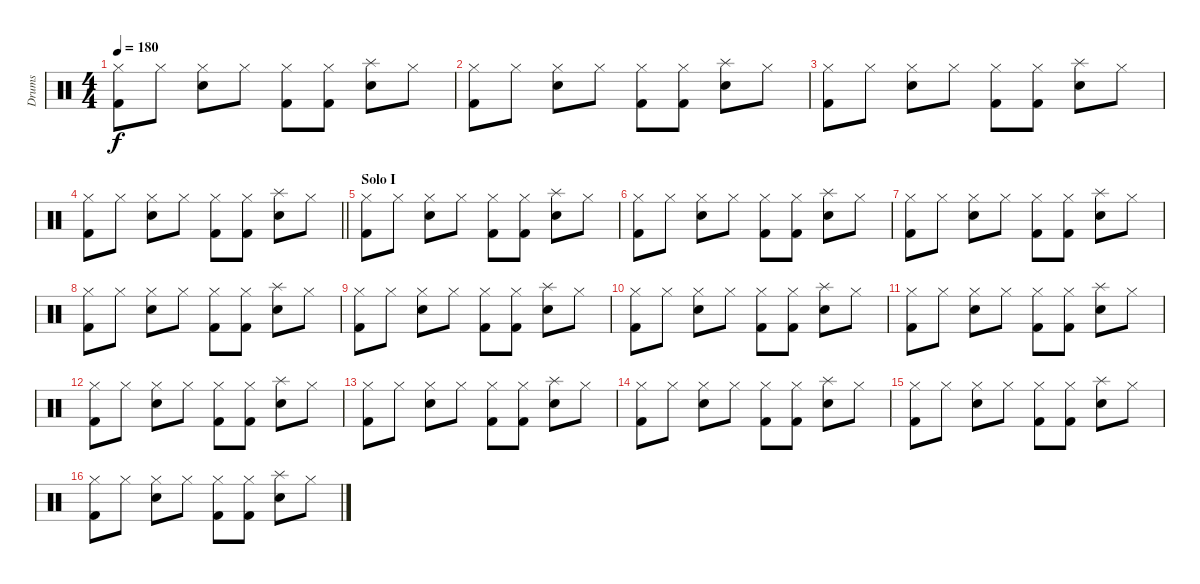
\track ("Drums" "Drums") {instrument percussion}
\staff {score}
\articulation defaults
\ts (4 4)
\tempo 180
\clef neutral
\ks c
("Hi-Hat (closed)" "Kick (hit) 2").8{dy f} "Hi-Hat (closed)".8 ("Hi-Hat (closed)" "Snare (hit) 2").8 "Hi-Hat (closed)".8 ("Hi-Hat (closed)" "Kick (hit) 2").8 ("Hi-Hat (closed)" "Kick (hit) 2").8 ("Splash (hit)" "Snare (hit) 2").8 "Hi-Hat (closed)".8 |
("Hi-Hat (closed)" "Kick (hit) 2").8 "Hi-Hat (closed)".8 ("Hi-Hat (closed)" "Snare (hit) 2").8 "Hi-Hat (closed)".8 ("Hi-Hat (closed)" "Kick (hit) 2").8 ("Hi-Hat (closed)" "Kick (hit) 2").8 ("Splash (hit)" "Snare (hit) 2").8 "Hi-Hat (closed)".8 |
("Hi-Hat (closed)" "Kick (hit) 2").8 "Hi-Hat (closed)".8 ("Hi-Hat (closed)" "Snare (hit) 2").8 "Hi-Hat (closed)".8 ("Hi-Hat (closed)" "Kick (hit) 2").8 ("Hi-Hat (closed)" "Kick (hit) 2").8 ("Splash (hit)" "Snare (hit) 2").8 "Hi-Hat (closed)".8 |
\barLineRight lightlight
("Hi-Hat (closed)" "Kick (hit) 2").8 "Hi-Hat (closed)".8 ("Hi-Hat (closed)" "Snare (hit) 2").8 "Hi-Hat (closed)".8 ("Hi-Hat (closed)" "Kick (hit) 2").8 ("Hi-Hat (closed)" "Kick (hit) 2").8 ("Splash (hit)" "Snare (hit) 2").8 "Hi-Hat (closed)".8 |
\section ("" "Solo I")
("Hi-Hat (closed)" "Kick (hit) 2").8 "Hi-Hat (closed)".8 ("Hi-Hat (closed)" "Snare (hit) 2").8 "Hi-Hat (closed)".8 ("Hi-Hat (closed)" "Kick (hit) 2").8 ("Hi-Hat (closed)" "Kick (hit) 2").8 ("Splash (hit)" "Snare (hit) 2").8 "Hi-Hat (closed)".8 |
("Hi-Hat (closed)" "Kick (hit) 2").8 "Hi-Hat (closed)".8 ("Hi-Hat (closed)" "Snare (hit) 2").8 "Hi-Hat (closed)".8 ("Hi-Hat (closed)" "Kick (hit) 2").8 ("Hi-Hat (closed)" "Kick (hit) 2").8 ("Splash (hit)" "Snare (hit) 2").8 "Hi-Hat (closed)".8 |
("Hi-Hat (closed)" "Kick (hit) 2").8 "Hi-Hat (closed)".8 ("Hi-Hat (closed)" "Snare (hit) 2").8 "Hi-Hat (closed)".8 ("Hi-Hat (closed)" "Kick (hit) 2").8 ("Hi-Hat (closed)" "Kick (hit) 2").8 ("Splash (hit)" "Snare (hit) 2").8 "Hi-Hat (closed)".8 |
("Hi-Hat (closed)" "Kick (hit) 2").8 "Hi-Hat (closed)".8 ("Hi-Hat (closed)" "Snare (hit) 2").8 "Hi-Hat (closed)".8 ("Hi-Hat (closed)" "Kick (hit) 2").8 ("Hi-Hat (closed)" "Kick (hit) 2").8 ("Splash (hit)" "Snare (hit) 2").8 "Hi-Hat (closed)".8 |
("Hi-Hat (closed)" "Kick (hit) 2").8 "Hi-Hat (closed)".8 ("Hi-Hat (closed)" "Snare (hit) 2").8 "Hi-Hat (closed)".8 ("Hi-Hat (closed)" "Kick (hit) 2").8 ("Hi-Hat (closed)" "Kick (hit) 2").8 ("Splash (hit)" "Snare (hit) 2").8 "Hi-Hat (closed)".8 |
("Hi-Hat (closed)" "Kick (hit) 2").8 "Hi-Hat (closed)".8 ("Hi-Hat (closed)" "Snare (hit) 2").8 "Hi-Hat (closed)".8 ("Hi-Hat (closed)" "Kick (hit) 2").8 ("Hi-Hat (closed)" "Kick (hit) 2").8 ("Splash (hit)" "Snare (hit) 2").8 "Hi-Hat (closed)".8 |
("Hi-Hat (closed)" "Kick (hit) 2").8 "Hi-Hat (closed)".8 ("Hi-Hat (closed)" "Snare (hit) 2").8 "Hi-Hat (closed)".8 ("Hi-Hat (closed)" "Kick (hit) 2").8 ("Hi-Hat (closed)" "Kick (hit) 2").8 ("Splash (hit)" "Snare (hit) 2").8 "Hi-Hat (closed)".8 |
("Hi-Hat (closed)" "Kick (hit) 2").8 "Hi-Hat (closed)".8 ("Hi-Hat (closed)" "Snare (hit) 2").8 "Hi-Hat (closed)".8 ("Hi-Hat (closed)" "Kick (hit) 2").8 ("Hi-Hat (closed)" "Kick (hit) 2").8 ("Splash (hit)" "Snare (hit) 2").8 "Hi-Hat (closed)".8 |
("Hi-Hat (closed)" "Kick (hit) 2").8 "Hi-Hat (closed)".8 ("Hi-Hat (closed)" "Snare (hit) 2").8 "Hi-Hat (closed)".8 ("Hi-Hat (closed)" "Kick (hit) 2").8 ("Hi-Hat (closed)" "Kick (hit) 2").8 ("Splash (hit)" "Snare (hit) 2").8 "Hi-Hat (closed)".8 |
("Hi-Hat (closed)" "Kick (hit) 2").8 "Hi-Hat (closed)".8 ("Hi-Hat (closed)" "Snare (hit) 2").8 "Hi-Hat (closed)".8 ("Hi-Hat (closed)" "Kick (hit) 2").8 ("Hi-Hat (closed)" "Kick (hit) 2").8 ("Splash (hit)" "Snare (hit) 2").8 "Hi-Hat (closed)".8 |
("Hi-Hat (closed)" "Kick (hit) 2").8 "Hi-Hat (closed)".8 ("Hi-Hat (closed)" "Snare (hit) 2").8 "Hi-Hat (closed)".8 ("Hi-Hat (closed)" "Kick (hit) 2").8 ("Hi-Hat (closed)" "Kick (hit) 2").8 ("Splash (hit)" "Snare (hit) 2").8 "Hi-Hat (closed)".8 |
("Hi-Hat (closed)" "Kick (hit) 2").8 "Hi-Hat (closed)".8 ("Hi-Hat (closed)" "Snare (hit) 2").8 "Hi-Hat (closed)".8 ("Hi-Hat (closed)" "Kick (hit) 2").8 ("Hi-Hat (closed)" "Kick (hit) 2").8 ("Splash (hit)" "Snare (hit) 2").8 "Hi-Hat (closed)".8
